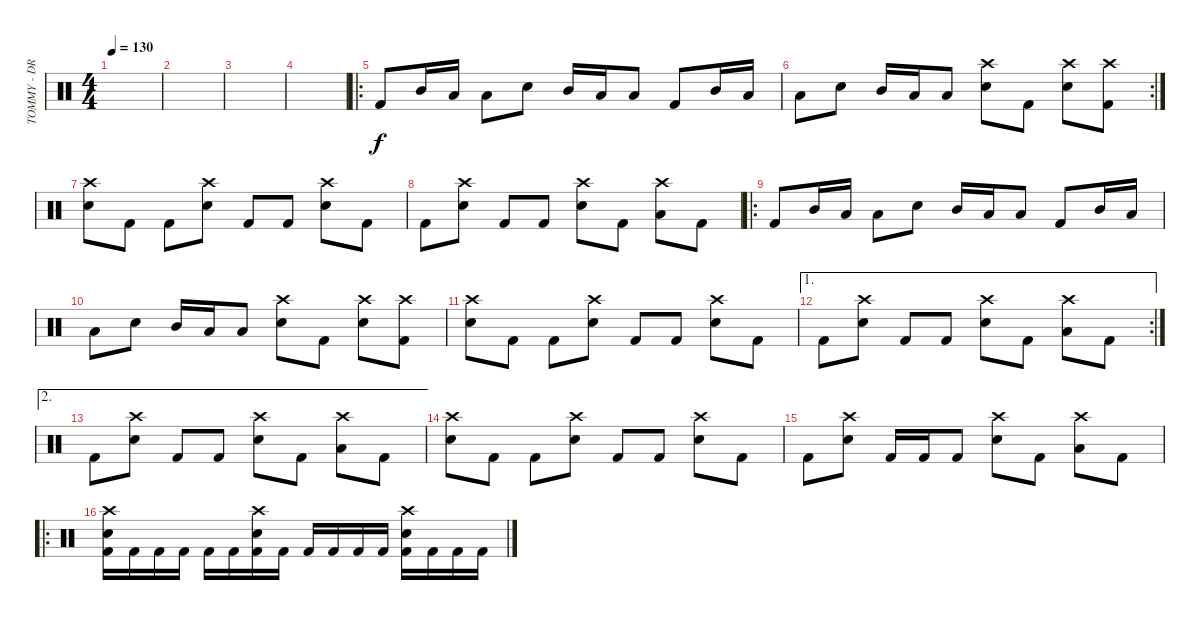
\track ("TOMMY - DRUMS" "TOMMY - DR") {instrument percussion}
\staff {score}
\articulation defaults
\ts (4 4)
\tempo 130
\clef neutral
\ks c
|
|
|
|
\ro "Kick (hit) 2".8 "Mid Tom (hit)".16 "Low Tom (hit)".16 "Low Floor Tom (hit)".8 "Electric Snare (hit)".8 "Mid Tom (hit)".16 "Low Tom (hit)".16 "Low Floor Tom (hit)".8 "Kick (hit) 2".8 "Mid Tom (hit)".16 "Low Tom (hit)".16
|
\rc 2 "Low Floor Tom (hit)".8 "Electric Snare (hit)".8 "Mid Tom (hit)".16 "Low Tom (hit)".16 "Low Floor Tom (hit)".8
("Crash high (hit)" "Electric Snare (hit)").8 "Kick (hit) 2".8 ("Crash high (hit)" "Electric Snare (hit)").8 ("Crash high (hit)" "Kick (hit) 2").8 |
("Crash high (hit)" "Electric Snare (hit)").8 "Kick (hit) 2".8 "Kick (hit) 2".8 ("Crash high (hit)" "Electric Snare (hit)").8 "Kick (hit) 2".8 "Kick (hit) 2".8 ("Crash high (hit)" "Electric Snare (hit)").8 "Kick (hit) 2".8 |
"Kick (hit) 2".8 ("Crash high (hit)" "Electric Snare (hit)").8 "Kick (hit) 2".8 "Kick (hit) 2".8 ("Crash high (hit)" "Electric Snare (hit)").8 "Kick (hit) 2".8 ("Crash high (hit)" "Low Floor Tom (hit)").8 "Kick (hit) 2".8 |
\ro "Kick (hit) 2".8 "Mid Tom (hit)".16 "Low Tom (hit)".16 "Low Floor Tom (hit)".8 "Electric Snare (hit)".8 "Mid Tom (hit)".16 "Low Tom (hit)".16 "Low Floor Tom (hit)".8 "Kick (hit) 2".8 "Mid Tom (hit)".16 "Low Tom (hit)".16
|
"Low Floor Tom (hit)".8 "Electric Snare (hit)".8 "Mid Tom (hit)".16 "Low Tom (hit)".16 "Low Floor Tom (hit)".8 ("Crash high (hit)" "Electric Snare (hit)").8 "Kick (hit) 2".8 ("Crash high (hit)" "Electric Snare (hit)").8 ("Crash high (hit)" "Kick (hit) 2").8 |
("Crash high (hit)" "Electric Snare (hit)").8 "Kick (hit) 2".8 "Kick (hit) 2".8 ("Crash high (hit)" "Electric Snare (hit)").8 "Kick (hit) 2".8 "Kick (hit) 2".8 ("Crash high (hit)" "Electric Snare (hit)").8 "Kick (hit) 2".8 |
\ae 1
\rc 2 "Kick (hit) 2".8
("Crash high (hit)" "Electric Snare (hit)").8 "Kick (hit) 2".8 "Kick (hit) 2".8 ("Crash high (hit)" "Electric Snare (hit)").8 "Kick (hit) 2".8 ("Crash high (hit)" "Low Floor Tom (hit)").8 "Kick (hit) 2".8 |
\ae 2 "Kick (hit) 2".8
("Crash high (hit)" "Electric Snare (hit)").8 "Kick (hit) 2".8 "Kick (hit) 2".8 ("Crash high (hit)" "Electric Snare (hit)").8 "Kick (hit) 2".8 ("Crash high (hit)" "Low Floor Tom (hit)").8 "Kick (hit) 2".8 |
("Crash high (hit)" "Electric Snare (hit)").8 "Kick (hit) 2".8 "Kick (hit) 2".8 ("Crash high (hit)" "Electric Snare (hit)").8 "Kick (hit) 2".8 "Kick (hit) 2".8 ("Crash high (hit)" "Electric Snare (hit)").8 "Kick (hit) 2".8 |
"Kick (hit) 2".8 ("Crash high (hit)" "Electric Snare (hit)").8 "Kick (hit) 2".16 "Kick (hit) 2".16 "Kick (hit) 2".8 ("Crash high (hit)" "Electric Snare (hit)").8 "Kick (hit) 2".8 ("Crash high (hit)" "Low Floor Tom (hit)").8 "Kick (hit) 2".8 |
\ro
("Crash high (hit)" "Electric Snare (hit)" "Kick (hit) 2").16 "Kick (hit) 2".16 "Kick (hit) 2".16 "Kick (hit) 2".16 "Kick (hit) 2".16 "Kick (hit) 2".16 ("Crash high (hit)" "Electric Snare (hit)" "Kick (hit) 2").16 "Kick (hit) 2".16 "Kick (hit) 2".16 "Kick (hit) 2".16 "Kick (hit) 2".16 "Kick (hit) 2".16 ("Crash high (hit)" "Electric Snare (hit)" "Kick (hit) 2").16 "Kick (hit) 2".16 "Kick (hit) 2".16 "Kick (hit) 2".16
